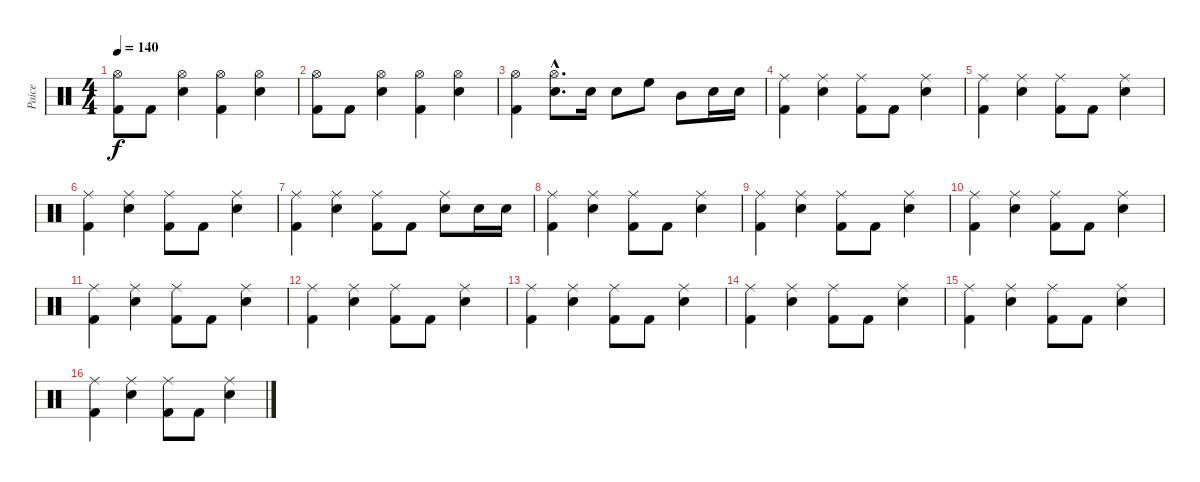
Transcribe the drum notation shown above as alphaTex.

\track ("Paice" "Paice") {instrument percussion}
\staff {score}
\articulation defaults
\ts (4 4)
\tempo 140
\clef neutral
\ks c
("Hi-Hat (open)" "Kick (hit) 2").8{dy f} "Kick (hit) 2".8 ("Hi-Hat (open)" "Electric Snare (hit)").4 ("Hi-Hat (open)" "Kick (hit) 2").4 ("Hi-Hat (open)" "Electric Snare (hit)").4 |
("Hi-Hat (open)" "Kick (hit) 2").8 "Kick (hit) 2".8 ("Hi-Hat (open)" "Electric Snare (hit)").4 ("Hi-Hat (open)" "Kick (hit) 2").4 ("Hi-Hat (open)" "Electric Snare (hit)").4 |
("Hi-Hat (open)" "Kick (hit) 2").4 ("Hi-Hat (open)"{hac} "Electric Snare (hit)"{hac}).8{d} "Electric Snare (hit)".16 "Electric Snare (hit)".8 "High Floor Tom (hit)".8 "Mid Tom (hit)".8 "Electric Snare (hit)".16 "Electric Snare (hit)".16 |
("Ride (middle)" "Kick (hit) 2").4 ("Ride (middle)" "Electric Snare (hit)").4 ("Ride (middle)" "Kick (hit) 2").8 "Kick (hit) 2".8 ("Ride (middle)" "Electric Snare (hit)").4 |
("Ride (middle)" "Kick (hit) 2").4 ("Ride (middle)" "Electric Snare (hit)").4 ("Ride (middle)" "Kick (hit) 2").8 "Kick (hit) 2".8 ("Ride (middle)" "Electric Snare (hit)").4 |
("Ride (middle)" "Kick (hit) 2").4 ("Ride (middle)" "Electric Snare (hit)").4 ("Ride (middle)" "Kick (hit) 2").8 "Kick (hit) 2".8 ("Ride (middle)" "Electric Snare (hit)").4 |
("Ride (middle)" "Kick (hit) 2").4 ("Ride (middle)" "Electric Snare (hit)").4 ("Ride (middle)" "Kick (hit) 2").8 "Kick (hit) 2".8 ("Ride (middle)" "Electric Snare (hit)").8 "Electric Snare (hit)".16 "Electric Snare (hit)".16 |
("Ride (middle)" "Kick (hit) 2").4 ("Ride (middle)" "Electric Snare (hit)").4 ("Ride (middle)" "Kick (hit) 2").8 "Kick (hit) 2".8 ("Ride (middle)" "Electric Snare (hit)").4 |
("Ride (middle)" "Kick (hit) 2").4 ("Ride (middle)" "Electric Snare (hit)").4 ("Ride (middle)" "Kick (hit) 2").8 "Kick (hit) 2".8 ("Ride (middle)" "Electric Snare (hit)").4 |
("Ride (middle)" "Kick (hit) 2").4 ("Ride (middle)" "Electric Snare (hit)").4 ("Ride (middle)" "Kick (hit) 2").8 "Kick (hit) 2".8 ("Ride (middle)" "Electric Snare (hit)").4 |
("Ride (middle)" "Kick (hit) 2").4 ("Ride (middle)" "Electric Snare (hit)").4 ("Ride (middle)" "Kick (hit) 2").8 "Kick (hit) 2".8 ("Ride (middle)" "Electric Snare (hit)").4 |
("Ride (middle)" "Kick (hit) 2").4 ("Ride (middle)" "Electric Snare (hit)").4 ("Ride (middle)" "Kick (hit) 2").8 "Kick (hit) 2".8 ("Ride (middle)" "Electric Snare (hit)").4 |
("Ride (middle)" "Kick (hit) 2").4 ("Ride (middle)" "Electric Snare (hit)").4 ("Ride (middle)" "Kick (hit) 2").8 "Kick (hit) 2".8 ("Ride (middle)" "Electric Snare (hit)").4 |
("Ride (middle)" "Kick (hit) 2").4 ("Ride (middle)" "Electric Snare (hit)").4 ("Ride (middle)" "Kick (hit) 2").8 "Kick (hit) 2".8 ("Ride (middle)" "Electric Snare (hit)").4 |
("Ride (middle)" "Kick (hit) 2").4 ("Ride (middle)" "Electric Snare (hit)").4 ("Ride (middle)" "Kick (hit) 2").8 "Kick (hit) 2".8 ("Ride (middle)" "Electric Snare (hit)").4 |
("Ride (middle)" "Kick (hit) 2").4 ("Ride (middle)" "Electric Snare (hit)").4 ("Ride (middle)" "Kick (hit) 2").8 "Kick (hit) 2".8 ("Ride (middle)" "Electric Snare (hit)").4
